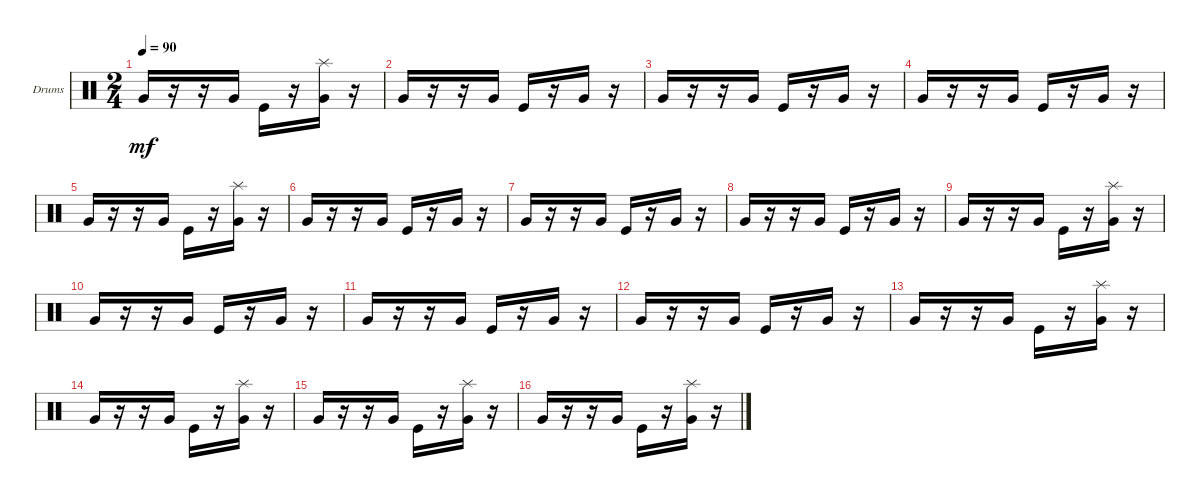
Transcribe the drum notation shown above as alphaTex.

\defaultSystemsLayout 4
\bracketExtendMode groupsimilarinstruments
\firstSystemTrackNameOrientation horizontal
\otherSystemsTrackNameOrientation horizontal
\track ("Drumkit" "Drums") {instrument percussion}
\staff {score}
\articulation defaults
\ts (2 4)
\tempo 90
\clef neutral
\ks c "Very Low Tom (hit)".16{dy mf}
r.16 r.16 "Very Low Tom (hit)".16 "Kick (hit)".16 r.16 ("Very Low Tom (hit)" "Splash (hit)").16 r.16 |
"Very Low Tom (hit)".16 r.16 r.16 "Very Low Tom (hit)".16 "Kick (hit)".16 r.16 "Very Low Tom (hit)".16 r.16 |
"Very Low Tom (hit)".16 r.16 r.16 "Very Low Tom (hit)".16 "Kick (hit)".16 r.16 "Very Low Tom (hit)".16 r.16 |
"Very Low Tom (hit)".16 r.16 r.16 "Very Low Tom (hit)".16 "Kick (hit)".16 r.16 "Very Low Tom (hit)".16 r.16 |
"Very Low Tom (hit)".16 r.16 r.16 "Very Low Tom (hit)".16 "Kick (hit)".16 r.16 ("Very Low Tom (hit)" "Splash (hit)").16 r.16 |
"Very Low Tom (hit)".16 r.16 r.16 "Very Low Tom (hit)".16 "Kick (hit)".16 r.16 "Very Low Tom (hit)".16 r.16 |
"Very Low Tom (hit)".16 r.16 r.16 "Very Low Tom (hit)".16 "Kick (hit)".16 r.16 "Very Low Tom (hit)".16 r.16 |
"Very Low Tom (hit)".16 r.16 r.16 "Very Low Tom (hit)".16 "Kick (hit)".16 r.16 "Very Low Tom (hit)".16 r.16 |
"Very Low Tom (hit)".16 r.16 r.16 "Very Low Tom (hit)".16 "Kick (hit)".16 r.16 ("Very Low Tom (hit)" "Splash (hit)").16 r.16 |
"Very Low Tom (hit)".16 r.16 r.16 "Very Low Tom (hit)".16 "Kick (hit)".16 r.16 "Very Low Tom (hit)".16 r.16 |
"Very Low Tom (hit)".16 r.16 r.16 "Very Low Tom (hit)".16 "Kick (hit)".16 r.16 "Very Low Tom (hit)".16 r.16 |
"Very Low Tom (hit)".16 r.16 r.16 "Very Low Tom (hit)".16 "Kick (hit)".16 r.16 "Very Low Tom (hit)".16 r.16 |
"Very Low Tom (hit)".16 r.16 r.16 "Very Low Tom (hit)".16 "Kick (hit)".16 r.16 ("Very Low Tom (hit)" "Splash (hit)").16 r.16 |
"Very Low Tom (hit)".16 r.16 r.16 "Very Low Tom (hit)".16 "Kick (hit)".16 r.16 ("Very Low Tom (hit)" "Splash (hit)").16 r.16 |
"Very Low Tom (hit)".16 r.16 r.16 "Very Low Tom (hit)".16 "Kick (hit)".16 r.16 ("Very Low Tom (hit)" "Splash (hit)").16 r.16 |
"Very Low Tom (hit)".16 r.16 r.16 "Very Low Tom (hit)".16 "Kick (hit)".16 r.16 ("Very Low Tom (hit)" "Splash (hit)").16 r.16
